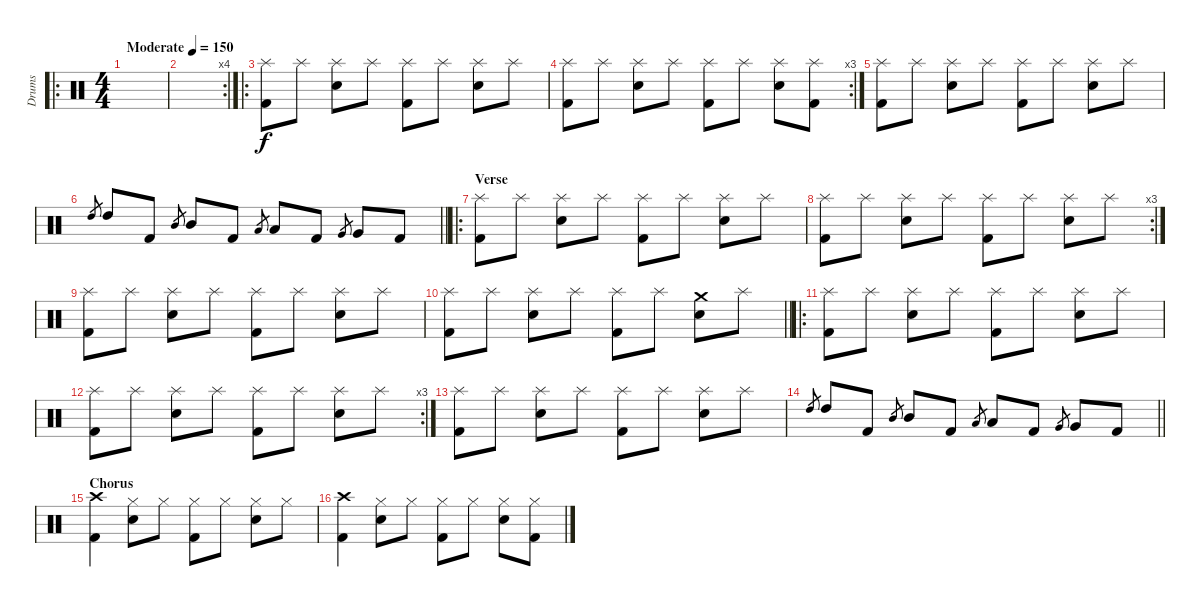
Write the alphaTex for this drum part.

\track ("Drums" "Drums") {instrument percussion}
\staff {score}
\articulation defaults
\ro
\ts (4 4)
\tempo (150 "Moderate")
\clef neutral
\ks c
|
\rc 4
|
\ro
("Splash (hit)" "Kick (hit) 2").8 "Splash (hit)".8 ("Splash (hit)" "Snare (hit) 2").8 "Splash (hit)".8 ("Splash (hit)" "Kick (hit) 2").8 "Splash (hit)".8 ("Splash (hit)" "Snare (hit) 2").8 "Splash (hit)".8 |
\rc 3
("Splash (hit)" "Kick (hit) 2").8 "Splash (hit)".8 ("Splash (hit)" "Snare (hit) 2").8 "Splash (hit)".8 ("Splash (hit)" "Kick (hit) 2").8 "Splash (hit)".8 ("Splash (hit)" "Snare (hit) 2").8 ("Splash (hit)" "Kick (hit) 2").8 |
("Splash (hit)" "Kick (hit) 2").8 "Splash (hit)".8 ("Splash (hit)" "Snare (hit) 2").8 "Splash (hit)".8 ("Splash (hit)" "Kick (hit) 2").8 "Splash (hit)".8 ("Splash (hit)" "Snare (hit) 2").8 "Splash (hit)".8 |
\barLineRight lightlight "High Tom (hit)".8{gr} "High Tom (hit)".8 "Kick (hit) 2".8 "Mid Tom (hit)".8{gr} "Mid Tom (hit)".8 "Kick (hit) 2".8 "Low Tom (hit)".8{gr} "Low Tom (hit)".8 "Kick (hit) 2".8 "Very Low Tom (hit)".8{gr} "Very Low Tom (hit)".8 "Kick (hit) 2".8
|
\ro
\section ("" "Verse")
("Splash (hit)" "Kick (hit) 2").8 "Splash (hit)".8 ("Splash (hit)" "Snare (hit) 2").8 "Splash (hit)".8 ("Splash (hit)" "Kick (hit) 2").8 "Splash (hit)".8 ("Splash (hit)" "Snare (hit) 2").8 "Splash (hit)".8 |
\rc 3
("Splash (hit)" "Kick (hit) 2").8 "Splash (hit)".8 ("Splash (hit)" "Snare (hit) 2").8 "Splash (hit)".8 ("Splash (hit)" "Kick (hit) 2").8 "Splash (hit)".8 ("Splash (hit)" "Snare (hit) 2").8 "Splash (hit)".8 |
("Splash (hit)" "Kick (hit) 2").8 "Splash (hit)".8 ("Splash (hit)" "Snare (hit) 2").8 "Splash (hit)".8 ("Splash (hit)" "Kick (hit) 2").8 "Splash (hit)".8 ("Splash (hit)" "Snare (hit) 2").8 "Splash (hit)".8 |
\barLineRight lightlight
("Splash (hit)" "Kick (hit) 2").8 "Splash (hit)".8 ("Splash (hit)" "Snare (hit) 2").8 "Splash (hit)".8 ("Splash (hit)" "Kick (hit) 2").8 "Splash (hit)".8 ("Crash medium (hit)" "Snare (hit) 2").8 "Splash (hit)".8 |
\ro
("Splash (hit)" "Kick (hit) 2").8 "Splash (hit)".8 ("Splash (hit)" "Snare (hit) 2").8 "Splash (hit)".8 ("Splash (hit)" "Kick (hit) 2").8 "Splash (hit)".8 ("Splash (hit)" "Snare (hit) 2").8 "Splash (hit)".8 |
\rc 3
("Splash (hit)" "Kick (hit) 2").8 "Splash (hit)".8 ("Splash (hit)" "Snare (hit) 2").8 "Splash (hit)".8 ("Splash (hit)" "Kick (hit) 2").8 "Splash (hit)".8 ("Splash (hit)" "Snare (hit) 2").8 "Splash (hit)".8 |
("Splash (hit)" "Kick (hit) 2").8 "Splash (hit)".8 ("Splash (hit)" "Snare (hit) 2").8 "Splash (hit)".8 ("Splash (hit)" "Kick (hit) 2").8 "Splash (hit)".8 ("Splash (hit)" "Snare (hit) 2").8 "Splash (hit)".8 |
\barLineRight lightlight "High Tom (hit)".8{gr} "High Tom (hit)".8 "Kick (hit) 2".8 "Mid Tom (hit)".8{gr} "Mid Tom (hit)".8 "Kick (hit) 2".8 "Low Tom (hit)".8{gr} "Low Tom (hit)".8 "Kick (hit) 2".8 "Very Low Tom (hit)".8{gr} "Very Low Tom (hit)".8 "Kick (hit) 2".8
|
\section ("" "Chorus")
("Crash high (hit)" "Kick (hit) 2").4 ("Hi-Hat (closed)" "Snare (hit) 2").8 "Hi-Hat (closed)".8 ("Hi-Hat (closed)" "Kick (hit) 2").8 "Hi-Hat (closed)".8 ("Hi-Hat (closed)" "Snare (hit) 2").8 "Hi-Hat (closed)".8 |
("Crash high (hit)" "Kick (hit) 2").4 ("Hi-Hat (closed)" "Snare (hit) 2").8 "Hi-Hat (closed)".8 ("Hi-Hat (closed)" "Kick (hit) 2").8 "Hi-Hat (closed)".8 ("Hi-Hat (closed)" "Snare (hit) 2").8 ("Hi-Hat (closed)" "Kick (hit) 2").8
